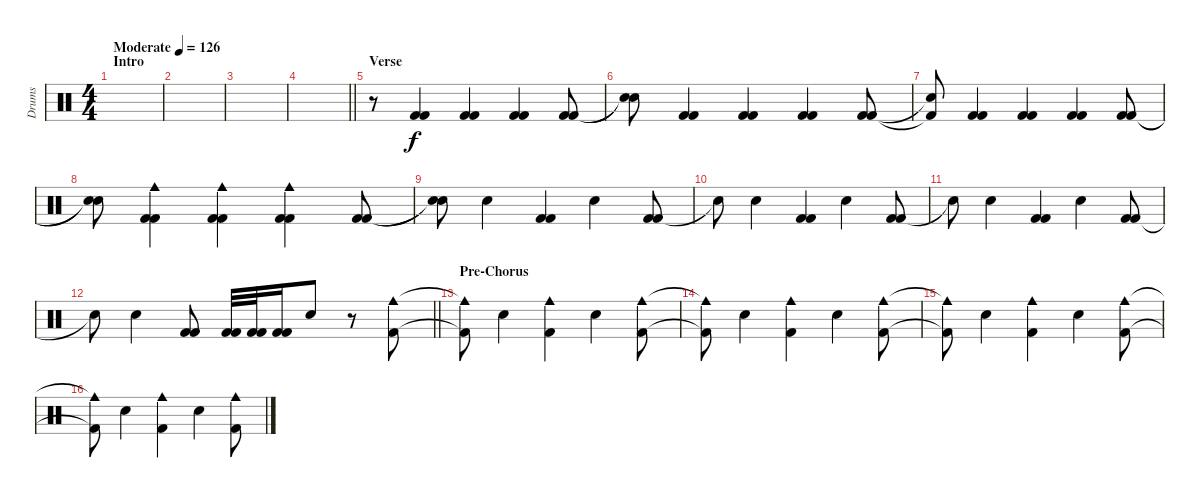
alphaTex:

\track ("Drums" "Drums") {instrument percussion}
\staff {score}
\articulation defaults
\ts (4 4)
\section ("" "Intro")
\tempo (126 "Moderate")
\clef neutral
\ks c
|
|
|
\barLineRight lightlight
|
\section ("" "Verse")
r.8 ("Kick (hit) 2" "Kick (hit) 2").4 ("Kick (hit) 2" "Kick (hit) 2").4 ("Kick (hit) 2" "Kick (hit) 2").4 ("Kick (hit) 2" "Kick (hit) 2").8 |
("Snare (hit)"{t} "Snare (hit)"{t}).8 ("Kick (hit) 2" "Kick (hit) 2").4 ("Kick (hit) 2" "Kick (hit) 2").4 ("Kick (hit) 2" "Kick (hit) 2").4 ("Kick (hit) 2" "Kick (hit) 2").8 |
("Kick (hit) 2"{t} "Snare (hit)"{t}).8 ("Kick (hit) 2" "Kick (hit) 2").4 ("Kick (hit) 2" "Kick (hit) 2").4 ("Kick (hit) 2" "Kick (hit) 2").4 ("Kick (hit) 2" "Kick (hit) 2").8 |
("Snare (hit)"{t} "Snare (hit)"{t}).8 ("Cowbell medium (hit)" "Kick (hit) 2" "Kick (hit) 2").4 ("Cowbell medium (hit)" "Kick (hit) 2" "Kick (hit) 2").4 ("Cowbell medium (hit)" "Kick (hit) 2" "Kick (hit) 2").4 ("Kick (hit) 2" "Kick (hit) 2").8 |
("Snare (hit)"{t} "Snare (hit)"{t}).8 "Electric Snare (hit)".4 ("Kick (hit) 2" "Kick (hit) 2").4 "Electric Snare (hit)".4 ("Kick (hit) 2" "Kick (hit) 2").8 |
"Snare (hit)"{t}.8 "Electric Snare (hit)".4 ("Kick (hit) 2" "Kick (hit) 2").4 "Electric Snare (hit)".4 ("Kick (hit) 2" "Kick (hit) 2").8 |
"Snare (hit)"{t}.8 "Electric Snare (hit)".4 ("Kick (hit) 2" "Kick (hit) 2").4 "Electric Snare (hit)".4 ("Kick (hit) 2" "Kick (hit) 2").8 |
\barLineRight lightlight "Snare (hit)"{t}.8 "Electric Snare (hit)".4
("Kick (hit) 2" "Kick (hit) 2").8 ("Kick (hit) 2" "Kick (hit) 2").32 ("Kick (hit) 2" "Kick (hit) 2").32 ("Kick (hit) 2" "Kick (hit) 2").16 "Electric Snare (hit)".8 r.8 ("Cowbell medium (hit)" "Kick (hit) 2").8 |
\section ("" "Pre-Chorus")
("Cowbell medium (hit)"{t} "Kick (hit) 2"{t}).8 "Electric Snare (hit)".4 ("Cowbell medium (hit)" "Kick (hit) 2").4 "Electric Snare (hit)".4 ("Cowbell medium (hit)" "Kick (hit) 2").8 |
("Cowbell medium (hit)"{t} "Kick (hit) 2"{t}).8 "Electric Snare (hit)".4 ("Cowbell medium (hit)" "Kick (hit) 2").4 "Electric Snare (hit)".4 ("Cowbell medium (hit)" "Kick (hit) 2").8 |
("Cowbell medium (hit)"{t} "Kick (hit) 2"{t}).8 "Electric Snare (hit)".4 ("Cowbell medium (hit)" "Kick (hit) 2").4 "Electric Snare (hit)".4 ("Cowbell medium (hit)" "Kick (hit) 2").8 |
("Cowbell medium (hit)"{t} "Kick (hit) 2"{t}).8 "Electric Snare (hit)".4 ("Cowbell medium (hit)" "Kick (hit) 2").4 "Electric Snare (hit)".4 ("Cowbell medium (hit)" "Kick (hit) 2").8
